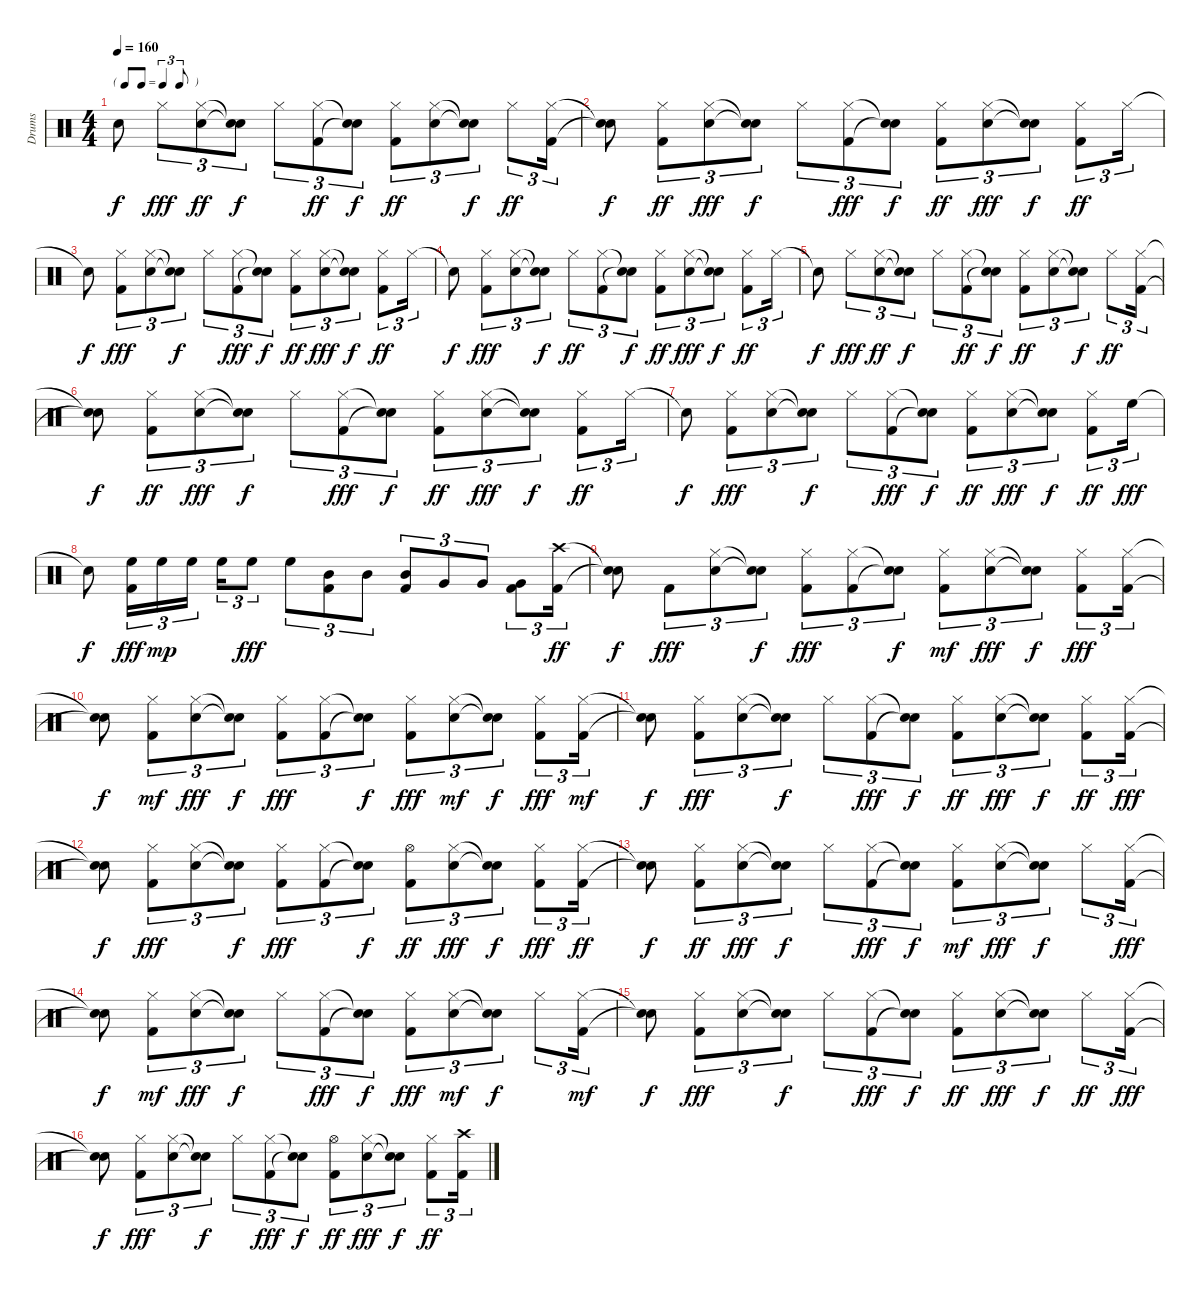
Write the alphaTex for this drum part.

\track ("Drums" "Drums") {instrument percussion}
\staff {score}
\articulation defaults
\ts (4 4)
\tf triplet8th
\tempo 160
\clef neutral
\ks c "Snare (hit)"{t}.8{dy f} "Hi-Hat (closed)".8{tu (3 2) dy fff}
("Electric Snare (hit)" "Hi-Hat (closed)").8{tu (3 2) dy ff} ("Snare (hit)"{t} "Snare (hit)"{t}).8{tu (3 2) dy f} "Hi-Hat (closed)".8{tu (3 2)} ("Kick (hit) 2" "Hi-Hat (closed)").8{tu (3 2) dy ff} ("Snare (hit)"{t} "Snare (hit)"{t}).8{tu (3 2) dy f} ("Kick (hit) 2" "Hi-Hat (closed)").8{tu (3 2) dy ff} ("Electric Snare (hit)" "Hi-Hat (closed)").8{tu (3 2)} ("Snare (hit)"{t} "Snare (hit)"{t}).8{tu (3 2) dy f} "Hi-Hat (closed)".8{tu (3 2) dy ff} ("Kick (hit) 2" "Hi-Hat (closed)").16{tu (3 2)} |
("Snare (hit)"{t} "Snare (hit)"{t}).8{dy f} ("Kick (hit) 2" "Hi-Hat (closed)").8{tu (3 2) dy ff} ("Hi-Hat (closed)" "Electric Snare (hit)").8{tu (3 2) dy fff} ("Snare (hit)"{t} "Snare (hit)"{t}).8{tu (3 2) dy f} "Hi-Hat (closed)".8{tu (3 2)} ("Kick (hit) 2" "Hi-Hat (closed)").8{tu (3 2) dy fff} ("Snare (hit)"{t} "Snare (hit)"{t}).8{tu (3 2) dy f} ("Kick (hit) 2" "Hi-Hat (closed)").8{tu (3 2) dy ff} ("Electric Snare (hit)" "Hi-Hat (closed)").8{tu (3 2) dy fff} ("Snare (hit)"{t} "Snare (hit)"{t}).8{tu (3 2) dy f} ("Kick (hit) 2" "Hi-Hat (closed)").8{tu (3 2) dy ff} "Hi-Hat (closed)".16{tu (3 2)} |
"Snare (hit)"{t}.8{dy f} ("Kick (hit) 2" "Hi-Hat (closed)").8{tu (3 2) dy fff} ("Hi-Hat (closed)" "Electric Snare (hit)").8{tu (3 2)} ("Snare (hit)"{t} "Snare (hit)"{t}).8{tu (3 2) dy f} "Hi-Hat (closed)".8{tu (3 2)} ("Kick (hit) 2" "Hi-Hat (closed)").8{tu (3 2) dy fff} ("Snare (hit)"{t} "Snare (hit)"{t}).8{tu (3 2) dy f} ("Kick (hit) 2" "Hi-Hat (closed)").8{tu (3 2) dy ff} ("Hi-Hat (closed)" "Electric Snare (hit)").8{tu (3 2) dy fff} ("Snare (hit)"{t} "Snare (hit)"{t}).8{tu (3 2) dy f} ("Kick (hit) 2" "Hi-Hat (closed)").8{tu (3 2) dy ff} "Hi-Hat (closed)".16{tu (3 2)} |
"Snare (hit)"{t}.8{dy f} ("Kick (hit) 2" "Hi-Hat (closed)").8{tu (3 2) dy fff} ("Hi-Hat (closed)" "Electric Snare (hit)").8{tu (3 2)} ("Snare (hit)"{t} "Snare (hit)"{t}).8{tu (3 2) dy f} "Hi-Hat (closed)".8{tu (3 2) dy ff} ("Kick (hit) 2" "Hi-Hat (closed)").8{tu (3 2)} ("Snare (hit)"{t} "Snare (hit)"{t}).8{tu (3 2) dy f} ("Kick (hit) 2" "Hi-Hat (closed)").8{tu (3 2) dy ff} ("Hi-Hat (closed)" "Electric Snare (hit)").8{tu (3 2) dy fff} ("Snare (hit)"{t} "Snare (hit)"{t}).8{tu (3 2) dy f} ("Kick (hit) 2" "Hi-Hat (closed)").8{tu (3 2) dy ff} "Hi-Hat (closed)".16{tu (3 2)} |
"Snare (hit)"{t}.8{dy f} "Hi-Hat (closed)".8{tu (3 2) dy fff} ("Electric Snare (hit)" "Hi-Hat (closed)").8{tu (3 2) dy ff} ("Snare (hit)"{t} "Snare (hit)"{t}).8{tu (3 2) dy f} "Hi-Hat (closed)".8{tu (3 2)} ("Kick (hit) 2" "Hi-Hat (closed)").8{tu (3 2) dy ff} ("Snare (hit)"{t} "Snare (hit)"{t}).8{tu (3 2) dy f} ("Kick (hit) 2" "Hi-Hat (closed)").8{tu (3 2) dy ff} ("Electric Snare (hit)" "Hi-Hat (closed)").8{tu (3 2)} ("Snare (hit)"{t} "Snare (hit)"{t}).8{tu (3 2) dy f} "Hi-Hat (closed)".8{tu (3 2) dy ff} ("Kick (hit) 2" "Hi-Hat (closed)").16{tu (3 2)} |
("Snare (hit)"{t} "Snare (hit)"{t}).8{dy f} ("Kick (hit) 2" "Hi-Hat (closed)").8{tu (3 2) dy ff} ("Hi-Hat (closed)" "Electric Snare (hit)").8{tu (3 2) dy fff} ("Snare (hit)"{t} "Snare (hit)"{t}).8{tu (3 2) dy f} "Hi-Hat (closed)".8{tu (3 2)} ("Kick (hit) 2" "Hi-Hat (closed)").8{tu (3 2) dy fff} ("Snare (hit)"{t} "Snare (hit)"{t}).8{tu (3 2) dy f} ("Kick (hit) 2" "Hi-Hat (closed)").8{tu (3 2) dy ff} ("Electric Snare (hit)" "Hi-Hat (closed)").8{tu (3 2) dy fff} ("Snare (hit)"{t} "Snare (hit)"{t}).8{tu (3 2) dy f} ("Kick (hit) 2" "Hi-Hat (closed)").8{tu (3 2) dy ff} "Hi-Hat (closed)".16{tu (3 2)} |
"Snare (hit)"{t}.8{dy f} ("Kick (hit) 2" "Hi-Hat (closed)").8{tu (3 2) dy fff} ("Hi-Hat (closed)" "Electric Snare (hit)").8{tu (3 2)} ("Snare (hit)"{t} "Snare (hit)"{t}).8{tu (3 2) dy f} "Hi-Hat (closed)".8{tu (3 2)} ("Kick (hit) 2" "Hi-Hat (closed)").8{tu (3 2) dy fff} ("Snare (hit)"{t} "Snare (hit)"{t}).8{tu (3 2) dy f} ("Kick (hit) 2" "Hi-Hat (closed)").8{tu (3 2) dy ff} ("Hi-Hat (closed)" "Electric Snare (hit)").8{tu (3 2) dy fff} ("Snare (hit)"{t} "Snare (hit)"{t}).8{tu (3 2) dy f} ("Kick (hit) 2" "Hi-Hat (closed)").8{tu (3 2) dy ff} "High Floor Tom (hit)".16{tu (3 2) dy fff} |
"Snare (hit)"{t}.8{dy f} ("Kick (hit) 2" "High Floor Tom (hit)").16{tu (3 2) dy fff} "High Floor Tom (hit)".16{tu (3 2) dy mp} "High Floor Tom (hit)".16{tu (3 2)} "High Floor Tom (hit)".16{tu (3 2)} "High Floor Tom (hit)".8{tu (3 2) dy fff} "High Floor Tom (hit)".8{tu (3 2)} ("Kick (hit) 2" "Mid Tom (hit)").8{tu (3 2)} "Mid Tom (hit)".8{tu (3 2)} ("Kick (hit) 2" "Mid Tom (hit)").8{tu (3 2)} "Very Low Tom (hit)".8{tu (3 2)} "Very Low Tom (hit)".8{tu (3 2)} ("Kick (hit) 2" "Very Low Tom (hit)").8{tu (3 2)} ("Kick (hit) 2" "Crash high (hit)").16{tu (3 2) dy ff} |
("Snare (hit)"{t} "Snare (hit)"{t}).8{dy f} "Kick (hit) 2".8{tu (3 2) dy fff} ("Hi-Hat (closed)" "Electric Snare (hit)").8{tu (3 2)} ("Snare (hit)"{t} "Snare (hit)"{t}).8{tu (3 2) dy f} ("Kick (hit) 2" "Hi-Hat (closed)").8{tu (3 2) dy fff} ("Kick (hit) 2" "Hi-Hat (closed)").8{tu (3 2)} ("Snare (hit)"{t} "Snare (hit)"{t}).8{tu (3 2) dy f} ("Kick (hit) 2" "Hi-Hat (closed)").8{tu (3 2) dy mf} ("Electric Snare (hit)" "Hi-Hat (closed)").8{tu (3 2) dy fff} ("Snare (hit)"{t} "Snare (hit)"{t}).8{tu (3 2) dy f} ("Kick (hit) 2" "Hi-Hat (closed)").8{tu (3 2) dy fff} ("Kick (hit) 2" "Hi-Hat (closed)").16{tu (3 2)} |
("Snare (hit)"{t} "Snare (hit)"{t}).8{dy f} ("Kick (hit) 2" "Hi-Hat (closed)").8{tu (3 2) dy mf} ("Electric Snare (hit)" "Hi-Hat (closed)").8{tu (3 2) dy fff} ("Snare (hit)"{t} "Snare (hit)"{t}).8{tu (3 2) dy f} ("Kick (hit) 2" "Hi-Hat (closed)").8{tu (3 2) dy fff} ("Kick (hit) 2" "Hi-Hat (closed)").8{tu (3 2)} ("Snare (hit)"{t} "Snare (hit)"{t}).8{tu (3 2) dy f} ("Kick (hit) 2" "Hi-Hat (closed)").8{tu (3 2) dy fff} ("Electric Snare (hit)" "Hi-Hat (closed)").8{tu (3 2) dy mf} ("Snare (hit)"{t} "Snare (hit)"{t}).8{tu (3 2) dy f} ("Kick (hit) 2" "Hi-Hat (closed)").8{tu (3 2) dy fff} ("Kick (hit) 2" "Hi-Hat (closed)").16{tu (3 2) dy mf} |
("Snare (hit)"{t} "Snare (hit)"{t}).8{dy f} ("Kick (hit) 2" "Hi-Hat (closed)").8{tu (3 2) dy fff} ("Hi-Hat (closed)" "Electric Snare (hit)").8{tu (3 2)} ("Snare (hit)"{t} "Snare (hit)"{t}).8{tu (3 2) dy f} "Hi-Hat (closed)".8{tu (3 2)} ("Kick (hit) 2" "Hi-Hat (closed)").8{tu (3 2) dy fff} ("Snare (hit)"{t} "Snare (hit)"{t}).8{tu (3 2) dy f} ("Kick (hit) 2" "Hi-Hat (closed)").8{tu (3 2) dy ff} ("Hi-Hat (closed)" "Electric Snare (hit)").8{tu (3 2) dy fff} ("Snare (hit)"{t} "Snare (hit)"{t}).8{tu (3 2) dy f} ("Kick (hit) 2" "Hi-Hat (closed)").8{tu (3 2) dy ff} ("Kick (hit) 2" "Hi-Hat (closed)").16{tu (3 2) dy fff} |
("Snare (hit)"{t} "Snare (hit)"{t}).8{dy f} ("Kick (hit) 2" "Hi-Hat (closed)").8{tu (3 2) dy fff} ("Hi-Hat (closed)" "Electric Snare (hit)").8{tu (3 2)} ("Snare (hit)"{t} "Snare (hit)"{t}).8{tu (3 2) dy f} ("Kick (hit) 2" "Hi-Hat (closed)").8{tu (3 2) dy fff} ("Kick (hit) 2" "Hi-Hat (closed)").8{tu (3 2)} ("Snare (hit)"{t} "Snare (hit)"{t}).8{tu (3 2) dy f} ("Kick (hit) 2" "Hi-Hat (open)").8{tu (3 2) dy ff} ("Hi-Hat (closed)" "Electric Snare (hit)").8{tu (3 2) dy fff} ("Snare (hit)"{t} "Snare (hit)"{t}).8{tu (3 2) dy f} ("Kick (hit) 2" "Hi-Hat (closed)").8{tu (3 2) dy fff} ("Kick (hit) 2" "Hi-Hat (closed)").16{tu (3 2) dy ff} |
("Snare (hit)"{t} "Snare (hit)"{t}).8{dy f} ("Kick (hit) 2" "Hi-Hat (closed)").8{tu (3 2) dy ff} ("Hi-Hat (closed)" "Electric Snare (hit)").8{tu (3 2) dy fff} ("Snare (hit)"{t} "Snare (hit)"{t}).8{tu (3 2) dy f} "Hi-Hat (closed)".8{tu (3 2)} ("Kick (hit) 2" "Hi-Hat (closed)").8{tu (3 2) dy fff} ("Snare (hit)"{t} "Snare (hit)"{t}).8{tu (3 2) dy f} ("Kick (hit) 2" "Hi-Hat (closed)").8{tu (3 2) dy mf} ("Electric Snare (hit)" "Hi-Hat (closed)").8{tu (3 2) dy fff} ("Snare (hit)"{t} "Snare (hit)"{t}).8{tu (3 2) dy f} "Hi-Hat (closed)".8{tu (3 2)} ("Kick (hit) 2" "Hi-Hat (closed)").16{tu (3 2) dy fff} |
("Snare (hit)"{t} "Snare (hit)"{t}).8{dy f} ("Kick (hit) 2" "Hi-Hat (closed)").8{tu (3 2) dy mf} ("Electric Snare (hit)" "Hi-Hat (closed)").8{tu (3 2) dy fff} ("Snare (hit)"{t} "Snare (hit)"{t}).8{tu (3 2) dy f} "Hi-Hat (closed)".8{tu (3 2)} ("Kick (hit) 2" "Hi-Hat (closed)").8{tu (3 2) dy fff} ("Snare (hit)"{t} "Snare (hit)"{t}).8{tu (3 2) dy f} ("Kick (hit) 2" "Hi-Hat (closed)").8{tu (3 2) dy fff} ("Electric Snare (hit)" "Hi-Hat (closed)").8{tu (3 2) dy mf} ("Snare (hit)"{t} "Snare (hit)"{t}).8{tu (3 2) dy f} "Hi-Hat (closed)".8{tu (3 2)} ("Kick (hit) 2" "Hi-Hat (closed)").16{tu (3 2) dy mf} |
("Snare (hit)"{t} "Snare (hit)"{t}).8{dy f} ("Kick (hit) 2" "Hi-Hat (closed)").8{tu (3 2) dy fff} ("Hi-Hat (closed)" "Electric Snare (hit)").8{tu (3 2)} ("Snare (hit)"{t} "Snare (hit)"{t}).8{tu (3 2) dy f} "Hi-Hat (closed)".8{tu (3 2)} ("Kick (hit) 2" "Hi-Hat (closed)").8{tu (3 2) dy fff} ("Snare (hit)"{t} "Snare (hit)"{t}).8{tu (3 2) dy f} ("Kick (hit) 2" "Hi-Hat (closed)").8{tu (3 2) dy ff} ("Hi-Hat (closed)" "Electric Snare (hit)").8{tu (3 2) dy fff} ("Snare (hit)"{t} "Snare (hit)"{t}).8{tu (3 2) dy f} "Hi-Hat (closed)".8{tu (3 2) dy ff} ("Kick (hit) 2" "Hi-Hat (closed)").16{tu (3 2) dy fff} |
("Snare (hit)"{t} "Snare (hit)"{t}).8{dy f} ("Kick (hit) 2" "Hi-Hat (closed)").8{tu (3 2) dy fff} ("Hi-Hat (closed)" "Electric Snare (hit)").8{tu (3 2)} ("Snare (hit)"{t} "Snare (hit)"{t}).8{tu (3 2) dy f} "Hi-Hat (closed)".8{tu (3 2)} ("Kick (hit) 2" "Hi-Hat (closed)").8{tu (3 2) dy fff} ("Snare (hit)"{t} "Snare (hit)"{t}).8{tu (3 2) dy f} ("Kick (hit) 2" "Hi-Hat (open)").8{tu (3 2) dy ff} ("Hi-Hat (closed)" "Electric Snare (hit)").8{tu (3 2) dy fff} ("Snare (hit)"{t} "Snare (hit)"{t}).8{tu (3 2) dy f} ("Kick (hit) 2" "Hi-Hat (closed)").8{tu (3 2) dy ff} ("Kick (hit) 2" "Crash high (hit)").16{tu (3 2)}
